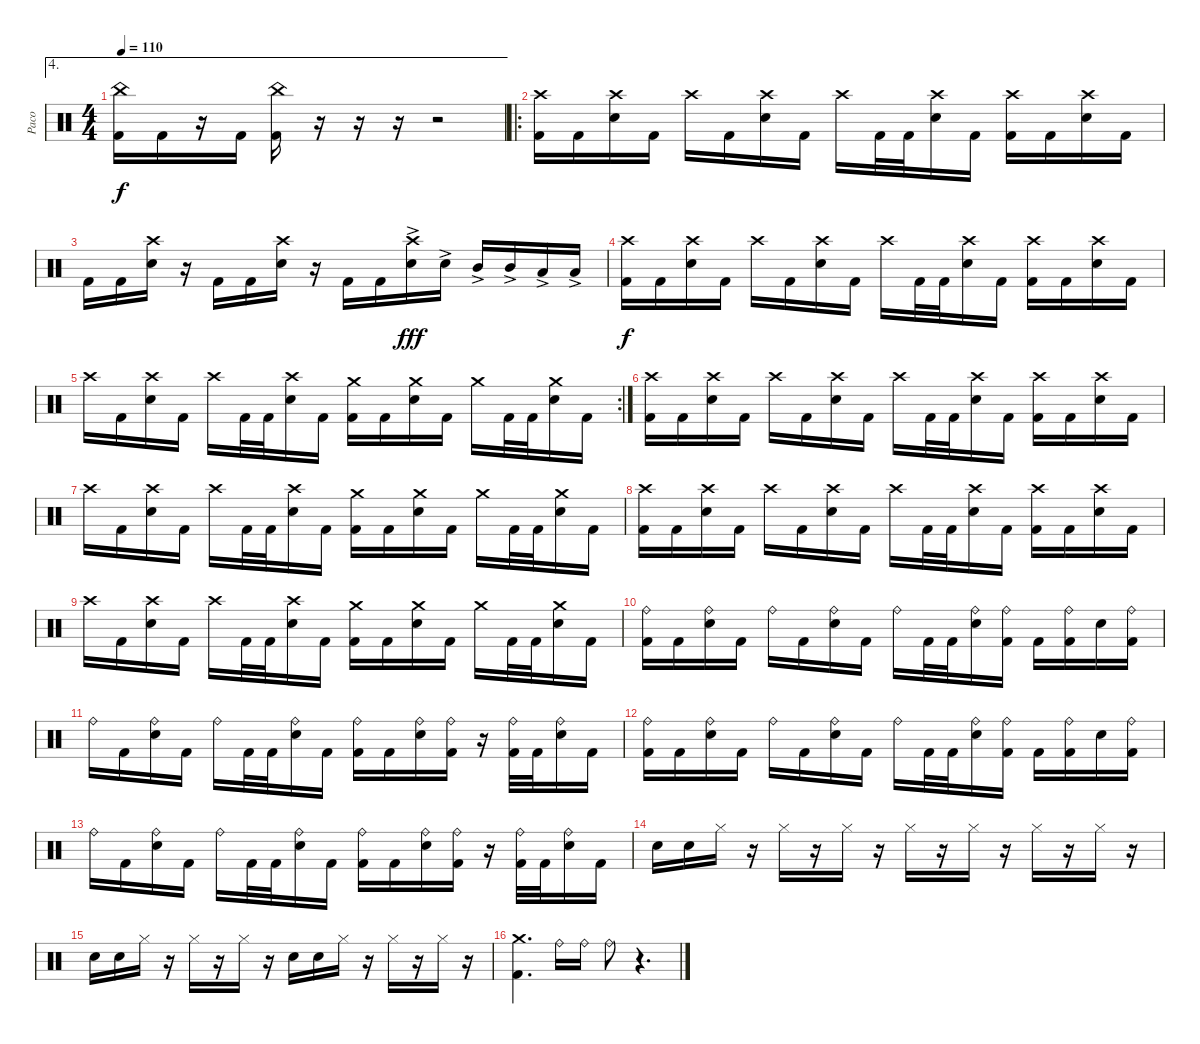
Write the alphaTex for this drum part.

\track ("Paco" "Paco") {instrument percussion}
\staff {score}
\articulation defaults
\ae 4
\ts (4 4)
\tempo 110
\clef neutral
\ks c
("China (hit)" "Kick (hit) 2").16{dy f} "Kick (hit) 2".16 r.16 "Kick (hit) 2".16 ("China (hit)" "Kick (hit) 2").16 r.16 r.16 r.16 r.2 |
\ro
("Crash high (hit)" "Kick (hit) 2").16 "Kick (hit) 2".16 ("Crash high (hit)" "Electric Snare (hit)").16 "Kick (hit) 2".16 "Crash high (hit)".16 "Kick (hit) 2".16 ("Crash high (hit)" "Electric Snare (hit)").16 "Kick (hit) 2".16 "Crash high (hit)".16 "Kick (hit) 2".32 "Kick (hit) 2".32 ("Crash high (hit)" "Electric Snare (hit)").16 "Kick (hit) 2".16 ("Crash high (hit)" "Kick (hit) 2").16 "Kick (hit) 2".16 ("Crash high (hit)" "Electric Snare (hit)").16 "Kick (hit) 2".16 |
"Kick (hit) 2".16 "Kick (hit) 2".16 ("Electric Snare (hit)" "Crash high (hit)").16 r.16 "Kick (hit) 2".16 "Kick (hit) 2".16 ("Electric Snare (hit)" "Crash high (hit)").16 r.16 "Kick (hit) 2".16 "Kick (hit) 2".16 ("Electric Snare (hit)"{ac} "Crash high (hit)").16{dy fff} "Electric Snare (hit)"{ac}.16 "Mid Tom (hit)"{ac}.16 "Mid Tom (hit)"{ac}.16 "Low Tom (hit)"{ac}.16 "Low Tom (hit)"{ac}.16 |
("Crash high (hit)" "Kick (hit) 2").16{dy f} "Kick (hit) 2".16 ("Crash high (hit)" "Electric Snare (hit)").16 "Kick (hit) 2".16 "Crash high (hit)".16 "Kick (hit) 2".16 ("Crash high (hit)" "Electric Snare (hit)").16 "Kick (hit) 2".16 "Crash high (hit)".16 "Kick (hit) 2".32 "Kick (hit) 2".32 ("Crash high (hit)" "Electric Snare (hit)").16 "Kick (hit) 2".16 ("Crash high (hit)" "Kick (hit) 2").16 "Kick (hit) 2".16 ("Crash high (hit)" "Electric Snare (hit)").16 "Kick (hit) 2".16 |
\rc 2 "Crash high (hit)".16 "Kick (hit) 2".16
("Crash high (hit)" "Electric Snare (hit)").16 "Kick (hit) 2".16 "Crash high (hit)".16 "Kick (hit) 2".32 "Kick (hit) 2".32 ("Crash high (hit)" "Electric Snare (hit)").16 "Kick (hit) 2".16 ("Crash medium (hit)" "Kick (hit) 2").16 "Kick (hit) 2".16 ("Crash medium (hit)" "Electric Snare (hit)").16 "Kick (hit) 2".16 "Crash medium (hit)".16 "Kick (hit) 2".32 "Kick (hit) 2".32 ("Crash medium (hit)" "Electric Snare (hit)").16 "Kick (hit) 2".16 |
("Crash high (hit)" "Kick (hit) 2").16 "Kick (hit) 2".16 ("Crash high (hit)" "Electric Snare (hit)").16 "Kick (hit) 2".16 "Crash high (hit)".16 "Kick (hit) 2".16 ("Crash high (hit)" "Electric Snare (hit)").16 "Kick (hit) 2".16 "Crash high (hit)".16 "Kick (hit) 2".32 "Kick (hit) 2".32 ("Crash high (hit)" "Electric Snare (hit)").16 "Kick (hit) 2".16 ("Crash high (hit)" "Kick (hit) 2").16 "Kick (hit) 2".16 ("Crash high (hit)" "Electric Snare (hit)").16 "Kick (hit) 2".16 |
"Crash high (hit)".16 "Kick (hit) 2".16 ("Crash high (hit)" "Electric Snare (hit)").16 "Kick (hit) 2".16 "Crash high (hit)".16 "Kick (hit) 2".32 "Kick (hit) 2".32 ("Crash high (hit)" "Electric Snare (hit)").16 "Kick (hit) 2".16 ("Crash medium (hit)" "Kick (hit) 2").16 "Kick (hit) 2".16 ("Crash medium (hit)" "Electric Snare (hit)").16 "Kick (hit) 2".16 "Crash medium (hit)".16 "Kick (hit) 2".32 "Kick (hit) 2".32 ("Crash medium (hit)" "Electric Snare (hit)").16 "Kick (hit) 2".16 |
("Crash high (hit)" "Kick (hit) 2").16 "Kick (hit) 2".16 ("Crash high (hit)" "Electric Snare (hit)").16 "Kick (hit) 2".16 "Crash high (hit)".16 "Kick (hit) 2".16 ("Crash high (hit)" "Electric Snare (hit)").16 "Kick (hit) 2".16 "Crash high (hit)".16 "Kick (hit) 2".32 "Kick (hit) 2".32 ("Crash high (hit)" "Electric Snare (hit)").16 "Kick (hit) 2".16 ("Crash high (hit)" "Kick (hit) 2").16 "Kick (hit) 2".16 ("Crash high (hit)" "Electric Snare (hit)").16 "Kick (hit) 2".16 |
"Crash high (hit)".16 "Kick (hit) 2".16 ("Crash high (hit)" "Electric Snare (hit)").16 "Kick (hit) 2".16 "Crash high (hit)".16 "Kick (hit) 2".32 "Kick (hit) 2".32 ("Crash high (hit)" "Electric Snare (hit)").16 "Kick (hit) 2".16 ("Crash medium (hit)" "Kick (hit) 2").16 "Kick (hit) 2".16 ("Crash medium (hit)" "Electric Snare (hit)").16 "Kick (hit) 2".16 "Crash medium (hit)".16 "Kick (hit) 2".32 "Kick (hit) 2".32 ("Crash medium (hit)" "Electric Snare (hit)").16 "Kick (hit) 2".16 |
("Ride (bell)" "Kick (hit) 2").16 "Kick (hit) 2".16 ("Ride (bell)" "Electric Snare (hit)").16 "Kick (hit) 2".16 "Ride (bell)".16 "Kick (hit) 2".16 ("Ride (bell)" "Electric Snare (hit)").16 "Kick (hit) 2".16 "Ride (bell)".16 "Kick (hit) 2".32 "Kick (hit) 2".32 ("Ride (bell)" "Electric Snare (hit)").16 ("Ride (bell)" "Kick (hit) 2").16 "Kick (hit) 2".16 ("Ride (bell)" "Kick (hit) 2").16 "Electric Snare (hit)".16 ("Ride (bell)" "Kick (hit) 2").16 |
"Ride (bell)".16 "Kick (hit) 2".16 ("Ride (bell)" "Electric Snare (hit)").16 "Kick (hit) 2".16 "Ride (bell)".16 "Kick (hit) 2".32 "Kick (hit) 2".32 ("Ride (bell)" "Electric Snare (hit)").16 "Kick (hit) 2".16 ("Ride (bell)" "Kick (hit) 2").16 "Kick (hit) 2".16 ("Ride (bell)" "Electric Snare (hit)").16 ("Ride (bell)" "Kick (hit) 2").16 r.16 ("Ride (bell)" "Kick (hit) 2").32 "Kick (hit) 2".32 ("Ride (bell)" "Electric Snare (hit)").16 "Kick (hit) 2".16 |
("Ride (bell)" "Kick (hit) 2").16 "Kick (hit) 2".16 ("Ride (bell)" "Electric Snare (hit)").16 "Kick (hit) 2".16 "Ride (bell)".16 "Kick (hit) 2".16 ("Ride (bell)" "Electric Snare (hit)").16 "Kick (hit) 2".16 "Ride (bell)".16 "Kick (hit) 2".32 "Kick (hit) 2".32 ("Ride (bell)" "Electric Snare (hit)").16 ("Ride (bell)" "Kick (hit) 2").16 "Kick (hit) 2".16 ("Ride (bell)" "Kick (hit) 2").16 "Electric Snare (hit)".16 ("Ride (bell)" "Kick (hit) 2").16 |
"Ride (bell)".16 "Kick (hit) 2".16 ("Ride (bell)" "Electric Snare (hit)").16 "Kick (hit) 2".16 "Ride (bell)".16 "Kick (hit) 2".32 "Kick (hit) 2".32 ("Ride (bell)" "Electric Snare (hit)").16 "Kick (hit) 2".16 ("Ride (bell)" "Kick (hit) 2").16 "Kick (hit) 2".16 ("Ride (bell)" "Electric Snare (hit)").16 ("Ride (bell)" "Kick (hit) 2").16 r.16 ("Ride (bell)" "Kick (hit) 2").32 "Kick (hit) 2".32 ("Ride (bell)" "Electric Snare (hit)").16 "Kick (hit) 2".16 |
"Electric Snare (hit)".16 "Electric Snare (hit)".16 "Hi-Hat (closed)".16 r.16 "Hi-Hat (closed)".16 r.16 "Hi-Hat (closed)".16 r.16 "Hi-Hat (closed)".16 r.16 "Hi-Hat (closed)".16 r.16 "Hi-Hat (closed)".16 r.16 "Hi-Hat (closed)".16 r.16 |
"Electric Snare (hit)".16 "Electric Snare (hit)".16 "Hi-Hat (closed)".16 r.16 "Hi-Hat (closed)".16 r.16 "Hi-Hat (closed)".16 r.16 "Electric Snare (hit)".16 "Electric Snare (hit)".16 "Hi-Hat (closed)".16 r.16 "Hi-Hat (closed)".16 r.16 "Hi-Hat (closed)".16 r.16 |
("Crash medium (hit)" "Kick (hit) 2").4{d} "Ride (bell)".16 "Ride (bell)".16 "Ride (bell)".8 r.4{d}
